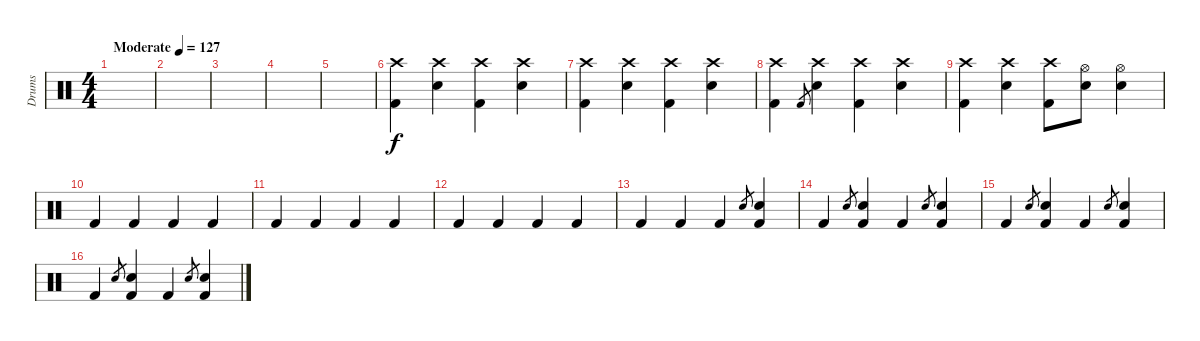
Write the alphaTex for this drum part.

\track ("Drums" "Drums") {instrument percussion}
\staff {score}
\articulation defaults
\ts (4 4)
\tempo (127 "Moderate")
\clef neutral
\ks c
|
|
|
|
|
("Crash high (hit)" "Kick (hit) 2").4 ("Crash high (hit)" "Snare (hit) 2").4 ("Crash high (hit)" "Kick (hit) 2").4 ("Crash high (hit)" "Snare (hit) 2").4 |
("Crash high (hit)" "Kick (hit) 2").4 ("Crash high (hit)" "Snare (hit) 2").4 ("Crash high (hit)" "Kick (hit) 2").4 ("Crash high (hit)" "Snare (hit) 2").4 |
("Crash high (hit)" "Kick (hit) 2").4 "Kick (hit) 2".8{gr} ("Crash high (hit)" "Snare (hit) 2").4 ("Crash high (hit)" "Kick (hit) 2").4 ("Crash high (hit)" "Snare (hit) 2").4 |
("Crash high (hit)" "Kick (hit) 2").4 ("Crash high (hit)" "Snare (hit) 2").4 ("Crash high (hit)" "Kick (hit) 2").8 ("Hi-Hat (open)" "Snare (hit) 2").8 ("Hi-Hat (open)" "Snare (hit) 2").4 |
"Kick (hit) 2".4 "Kick (hit) 2".4 "Kick (hit) 2".4 "Kick (hit) 2".4 |
"Kick (hit) 2".4 "Kick (hit) 2".4 "Kick (hit) 2".4 "Kick (hit) 2".4 |
"Kick (hit) 2".4 "Kick (hit) 2".4 "Kick (hit) 2".4 "Kick (hit) 2".4 |
"Kick (hit) 2".4 "Kick (hit) 2".4 "Kick (hit) 2".4 "Snare (hit) 2".8{gr} ("Snare (hit) 2" "Kick (hit) 2").4 |
"Kick (hit) 2".4 "Snare (hit) 2".8{gr} ("Kick (hit) 2" "Snare (hit) 2").4 "Kick (hit) 2".4 "Snare (hit) 2".8{gr} ("Kick (hit) 2" "Snare (hit) 2").4 |
"Kick (hit) 2".4 "Snare (hit) 2".8{gr} ("Kick (hit) 2" "Snare (hit) 2").4 "Kick (hit) 2".4 "Snare (hit) 2".8{gr} ("Kick (hit) 2" "Snare (hit) 2").4 |
"Kick (hit) 2".4 "Snare (hit) 2".8{gr} ("Kick (hit) 2" "Snare (hit) 2").4 "Kick (hit) 2".4 "Snare (hit) 2".8{gr} ("Kick (hit) 2" "Snare (hit) 2").4
